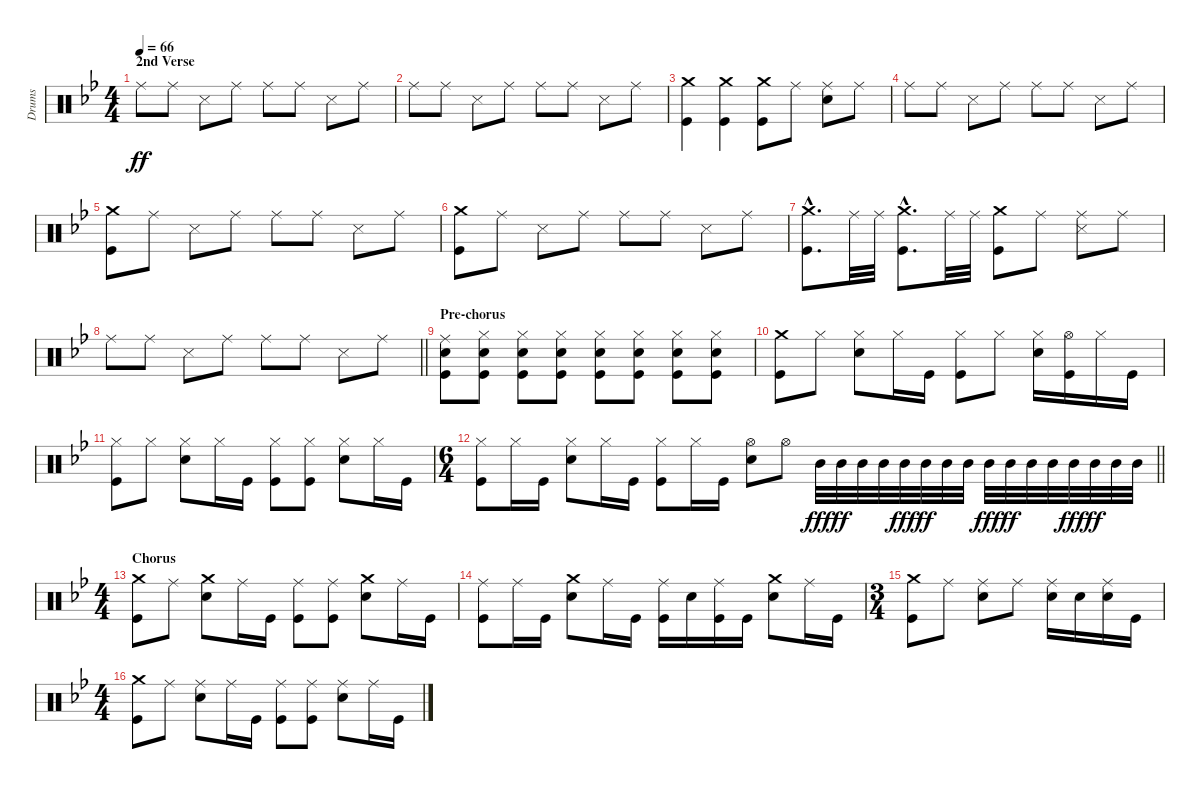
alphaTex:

\track ("Drums" "Drums") {instrument percussion}
\staff {score}
\articulation defaults
\ts (4 4)
\section ("" "2nd Verse")
\tempo 66
\clef neutral
\ks bb "Ride (middle)".8{dy ff} "Ride (middle)".8 "Snare (side stick) 3".8 "Ride (middle)".8 "Ride (middle)".8 "Ride (middle)".8 "Snare (side stick) 3".8 "Ride (middle)".8
|
"Ride (middle)".8 "Ride (middle)".8 "Snare (side stick) 3".8 "Ride (middle)".8 "Ride (middle)".8 "Ride (middle)".8 "Snare (side stick) 3".8 "Ride (middle)".8 |
("Kick (hit)" "Crash medium (hit)").4 ("Kick (hit)" "Crash medium (hit)").4 ("Kick (hit)" "Crash medium (hit)").8 "Ride (middle)".8 ("Snare (hit) 2" "Ride (middle)").8 "Ride (middle)".8 |
"Ride (middle)".8 "Ride (middle)".8 "Snare (side stick) 3".8 "Ride (middle)".8 "Ride (middle)".8 "Ride (middle)".8 "Snare (side stick) 3".8 "Ride (middle)".8 |
("Kick (hit)" "Crash medium (hit)").8 "Ride (middle)".8 "Snare (side stick) 3".8 "Ride (middle)".8 "Ride (middle)".8 "Ride (middle)".8 "Snare (side stick) 3".8 "Ride (middle)".8 |
("Kick (hit)" "Crash medium (hit)").8 "Ride (middle)".8 "Snare (side stick) 3".8 "Ride (middle)".8 "Ride (middle)".8 "Ride (middle)".8 "Snare (side stick) 3".8 "Ride (middle)".8 |
("Kick (hit)"{hac} "Crash medium (hit)"{hac}).8{d} "Ride (middle)".32 "Ride (middle)".32 ("Kick (hit)"{hac} "Crash medium (hit)"{hac}).8{d} "Ride (middle)".32 "Ride (middle)".32 ("Kick (hit)" "Crash medium (hit)").8 "Ride (middle)".8 ("Snare (side stick) 3" "Ride (middle)").8 "Ride (middle)".8 |
\barLineRight lightlight "Ride (middle)".8 "Ride (middle)".8 "Snare (side stick) 3".8 "Ride (middle)".8 "Ride (middle)".8 "Ride (middle)".8 "Snare (side stick) 3".8 "Ride (middle)".8
|
\section ("" "Pre-chorus")
("Kick (hit)" "Snare (hit) 2" "Ride (middle)").8 ("Kick (hit)" "Snare (hit) 2" "Hi-Hat (closed)").8 ("Kick (hit)" "Snare (hit) 2" "Hi-Hat (closed)").8 ("Kick (hit)" "Snare (hit) 2" "Hi-Hat (closed)").8 ("Kick (hit)" "Snare (hit) 2" "Hi-Hat (closed)").8 ("Kick (hit)" "Snare (hit) 2" "Hi-Hat (closed)").8 ("Kick (hit)" "Snare (hit) 2" "Hi-Hat (closed)").8 ("Kick (hit)" "Snare (hit) 2" "Hi-Hat (closed)").8 |
("Kick (hit)" "Crash medium (hit)").8 "Hi-Hat (closed)".8 ("Snare (hit) 2" "Hi-Hat (closed)").8 "Hi-Hat (closed)".16 "Kick (hit)".16 ("Kick (hit)" "Hi-Hat (closed)").8 "Hi-Hat (closed)".8 ("Snare (hit) 2" "Hi-Hat (closed)").16 ("Kick (hit)" "Hi-Hat (open)").16 "Hi-Hat (closed)".16 "Kick (hit)".16 |
("Kick (hit)" "Hi-Hat (closed)").8 "Hi-Hat (closed)".8 ("Snare (hit) 2" "Hi-Hat (closed)").8 "Hi-Hat (closed)".16 "Kick (hit)".16 ("Kick (hit)" "Hi-Hat (closed)").8 ("Kick (hit)" "Hi-Hat (closed)").8 ("Snare (hit) 2" "Hi-Hat (closed)").8 "Hi-Hat (closed)".16 "Kick (hit)".16 |
\ts (6 4)
\barLineRight lightlight
("Kick (hit)" "Hi-Hat (closed)").8 "Hi-Hat (closed)".16 "Kick (hit)".16 ("Snare (hit) 2" "Hi-Hat (closed)").8 "Hi-Hat (closed)".16 "Kick (hit)".16 ("Kick (hit)" "Hi-Hat (closed)").8 "Hi-Hat (closed)".16 "Kick (hit)".16 ("Snare (hit) 2" "Hi-Hat (open)").8 "Hi-Hat (open)".8 "Mid Tom (hit)".32{dy fff} "Mid Tom (hit)".32{dy ff} "Mid Tom (hit)".32 "Mid Tom (hit)".32 "Mid Tom (hit)".32{dy fff} "Mid Tom (hit)".32{dy ff} "Mid Tom (hit)".32 "Mid Tom (hit)".32 "Mid Tom (hit)".32{dy fff} "Mid Tom (hit)".32{dy ff} "Mid Tom (hit)".32 "Mid Tom (hit)".32 "Mid Tom (hit)".32{dy fff} "Mid Tom (hit)".32{dy ff} "Mid Tom (hit)".32 "Mid Tom (hit)".32 |
\ts (4 4)
\section ("" "Chorus")
("Kick (hit)" "Crash medium (hit)").8 "Ride (middle)".8 ("Snare (hit) 2" "Crash medium (hit)").8 "Ride (middle)".16 "Kick (hit)".16 ("Kick (hit)" "Ride (middle)").8 ("Kick (hit)" "Ride (middle)").8 ("Snare (hit) 2" "Crash medium (hit)").8 "Ride (middle)".16 "Kick (hit)".16 |
("Kick (hit)" "Ride (middle)").8 "Ride (middle)".16 "Kick (hit)".16 ("Snare (hit) 2" "Crash medium (hit)").8 "Ride (middle)".16 "Kick (hit)".16 ("Kick (hit)" "Ride (middle)").16 "Snare (hit) 2".16 ("Kick (hit)" "Ride (middle)").16 "Kick (hit)".16 ("Snare (hit) 2" "Crash medium (hit)").8 "Ride (middle)".16 "Kick (hit)".16 |
\ts (3 4)
("Kick (hit)" "Crash medium (hit)").8 "Ride (middle)".8 ("Snare (hit) 2" "Ride (middle)").8 "Ride (middle)".8 ("Snare (hit) 2" "Ride (middle)").16 "Snare (hit) 2".16 ("Snare (hit) 2" "Ride (middle)").16 "Kick (hit)".16 |
\ts (4 4)
("Kick (hit)" "Crash medium (hit)").8 "Ride (middle)".8 ("Snare (hit) 2" "Ride (middle)").8 "Ride (middle)".16 "Kick (hit)".16 ("Kick (hit)" "Ride (middle)").8 ("Kick (hit)" "Ride (middle)").8 ("Snare (hit) 2" "Ride (middle)").8 "Ride (middle)".16 "Kick (hit)".16
